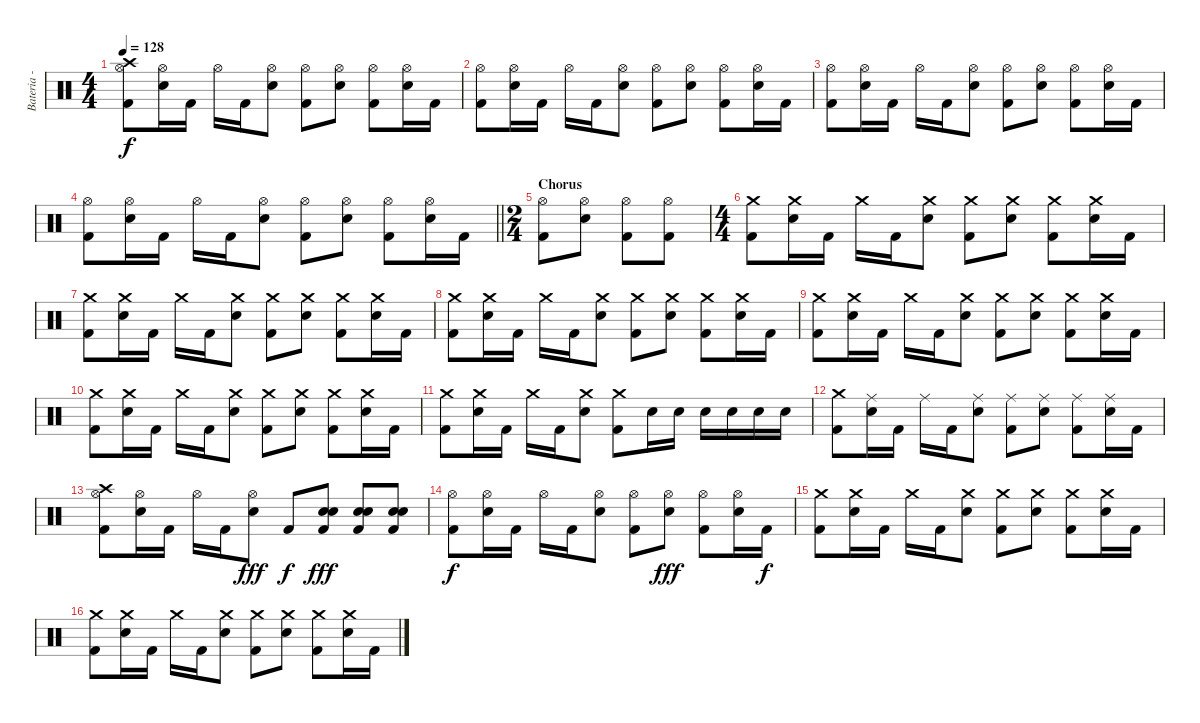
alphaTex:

\track ("Bateria - Larzon" "Bateria - ") {instrument percussion}
\staff {score}
\articulation defaults
\ts (4 4)
\tempo 128
\clef neutral
\ks c
("Kick (hit) 2" "Hi-Hat (open)" "Crash high (hit)").8{dy f} ("Electric Snare (hit)" "Hi-Hat (open)").16 "Kick (hit) 2".16 "Hi-Hat (open)".16 "Kick (hit) 2".16 ("Electric Snare (hit)" "Hi-Hat (open)").8 ("Kick (hit) 2" "Hi-Hat (open)").8 ("Electric Snare (hit)" "Hi-Hat (open)").8 ("Kick (hit) 2" "Hi-Hat (open)").8 ("Electric Snare (hit)" "Hi-Hat (open)").16 "Kick (hit) 2".16 |
("Kick (hit) 2" "Hi-Hat (open)").8 ("Electric Snare (hit)" "Hi-Hat (open)").16 "Kick (hit) 2".16 "Hi-Hat (open)".16 "Kick (hit) 2".16 ("Electric Snare (hit)" "Hi-Hat (open)").8 ("Kick (hit) 2" "Hi-Hat (open)").8 ("Electric Snare (hit)" "Hi-Hat (open)").8 ("Kick (hit) 2" "Hi-Hat (open)").8 ("Electric Snare (hit)" "Hi-Hat (open)").16 "Kick (hit) 2".16 |
("Kick (hit) 2" "Hi-Hat (open)").8 ("Electric Snare (hit)" "Hi-Hat (open)").16 "Kick (hit) 2".16 "Hi-Hat (open)".16 "Kick (hit) 2".16 ("Electric Snare (hit)" "Hi-Hat (open)").8 ("Kick (hit) 2" "Hi-Hat (open)").8 ("Electric Snare (hit)" "Hi-Hat (open)").8 ("Kick (hit) 2" "Hi-Hat (open)").8 ("Electric Snare (hit)" "Hi-Hat (open)").16 "Kick (hit) 2".16 |
\barLineRight lightlight
("Kick (hit) 2" "Hi-Hat (open)").8 ("Electric Snare (hit)" "Hi-Hat (open)").16 "Kick (hit) 2".16 "Hi-Hat (open)".16 "Kick (hit) 2".16 ("Electric Snare (hit)" "Hi-Hat (open)").8 ("Kick (hit) 2" "Hi-Hat (open)").8 ("Electric Snare (hit)" "Hi-Hat (open)").8 ("Kick (hit) 2" "Hi-Hat (open)").8 ("Electric Snare (hit)" "Hi-Hat (open)").16 "Kick (hit) 2".16 |
\ts (2 4)
\section ("" "Chorus")
("Kick (hit) 2" "Hi-Hat (open)").8 ("Electric Snare (hit)" "Hi-Hat (open)").8 ("Kick (hit) 2" "Hi-Hat (open)").8 ("Kick (hit) 2" "Hi-Hat (open)").8 |
\ts (4 4)
("Kick (hit) 2" "Crash medium (hit)").8 ("Electric Snare (hit)" "Crash medium (hit)").16 "Kick (hit) 2".16 "Crash medium (hit)".16 "Kick (hit) 2".16 ("Electric Snare (hit)" "Crash medium (hit)").8 ("Kick (hit) 2" "Crash medium (hit)").8 ("Electric Snare (hit)" "Crash medium (hit)").8 ("Kick (hit) 2" "Crash medium (hit)").8 ("Electric Snare (hit)" "Crash medium (hit)").16 "Kick (hit) 2".16 |
("Kick (hit) 2" "Crash medium (hit)").8 ("Electric Snare (hit)" "Crash medium (hit)").16 "Kick (hit) 2".16 "Crash medium (hit)".16 "Kick (hit) 2".16 ("Electric Snare (hit)" "Crash medium (hit)").8 ("Kick (hit) 2" "Crash medium (hit)").8 ("Electric Snare (hit)" "Crash medium (hit)").8 ("Kick (hit) 2" "Crash medium (hit)").8 ("Electric Snare (hit)" "Crash medium (hit)").16 "Kick (hit) 2".16 |
("Kick (hit) 2" "Crash medium (hit)").8 ("Electric Snare (hit)" "Crash medium (hit)").16 "Kick (hit) 2".16 "Crash medium (hit)".16 "Kick (hit) 2".16 ("Electric Snare (hit)" "Crash medium (hit)").8 ("Kick (hit) 2" "Crash medium (hit)").8 ("Electric Snare (hit)" "Crash medium (hit)").8 ("Kick (hit) 2" "Crash medium (hit)").8 ("Electric Snare (hit)" "Crash medium (hit)").16 "Kick (hit) 2".16 |
("Kick (hit) 2" "Crash medium (hit)").8 ("Electric Snare (hit)" "Crash medium (hit)").16 "Kick (hit) 2".16 "Crash medium (hit)".16 "Kick (hit) 2".16 ("Electric Snare (hit)" "Crash medium (hit)").8 ("Kick (hit) 2" "Crash medium (hit)").8 ("Electric Snare (hit)" "Crash medium (hit)").8 ("Kick (hit) 2" "Crash medium (hit)").8 ("Electric Snare (hit)" "Crash medium (hit)").16 "Kick (hit) 2".16 |
("Kick (hit) 2" "Crash medium (hit)").8 ("Electric Snare (hit)" "Crash medium (hit)").16 "Kick (hit) 2".16 "Crash medium (hit)".16 "Kick (hit) 2".16 ("Electric Snare (hit)" "Crash medium (hit)").8 ("Kick (hit) 2" "Crash medium (hit)").8 ("Electric Snare (hit)" "Crash medium (hit)").8 ("Kick (hit) 2" "Crash medium (hit)").8 ("Electric Snare (hit)" "Crash medium (hit)").16 "Kick (hit) 2".16 |
("Kick (hit) 2" "Crash medium (hit)").8 ("Electric Snare (hit)" "Crash medium (hit)").16 "Kick (hit) 2".16 "Crash medium (hit)".16 "Kick (hit) 2".16 ("Electric Snare (hit)" "Crash medium (hit)").8 ("Kick (hit) 2" "Crash medium (hit)").8 "Electric Snare (hit)".16 "Electric Snare (hit)".16 "Electric Snare (hit)".16 "Electric Snare (hit)".16 "Electric Snare (hit)".16 "Electric Snare (hit)".16 |
("Kick (hit) 2" "Crash medium (hit)").8 ("Electric Snare (hit)" "Ride (middle)").16 "Kick (hit) 2".16 "Ride (middle)".16 "Kick (hit) 2".16 ("Electric Snare (hit)" "Ride (middle)").8 ("Kick (hit) 2" "Ride (middle)").8 ("Electric Snare (hit)" "Ride (middle)").8 ("Kick (hit) 2" "Ride (middle)").8 ("Electric Snare (hit)" "Ride (middle)").16 "Kick (hit) 2".16 |
("Kick (hit) 2" "Hi-Hat (open)" "Crash high (hit)").8 ("Electric Snare (hit)" "Hi-Hat (open)").16 "Kick (hit) 2".16 "Hi-Hat (open)".16 "Kick (hit) 2".16 ("Electric Snare (hit)" "Hi-Hat (open)").8{dy fff} "Kick (hit) 2".8{dy f} ("Electric Snare (hit)" "Electric Snare (hit)" "Kick (hit) 2").8{dy fff} ("Electric Snare (hit)" "Electric Snare (hit)" "Kick (hit) 2").8 ("Electric Snare (hit)" "Electric Snare (hit)" "Kick (hit) 2").8 |
("Kick (hit) 2" "Hi-Hat (open)").8{dy f} ("Electric Snare (hit)" "Hi-Hat (open)").16 "Kick (hit) 2".16 "Hi-Hat (open)".16 "Kick (hit) 2".16 ("Electric Snare (hit)" "Hi-Hat (open)").8 ("Kick (hit) 2" "Hi-Hat (open)").8 ("Electric Snare (hit)" "Hi-Hat (open)").8{dy fff} ("Kick (hit) 2" "Hi-Hat (open)").8 ("Electric Snare (hit)" "Hi-Hat (open)").16 "Kick (hit) 2".16{dy f} |
("Kick (hit) 2" "Crash medium (hit)").8 ("Electric Snare (hit)" "Crash medium (hit)").16 "Kick (hit) 2".16 "Crash medium (hit)".16 "Kick (hit) 2".16 ("Electric Snare (hit)" "Crash medium (hit)").8 ("Kick (hit) 2" "Crash medium (hit)").8 ("Electric Snare (hit)" "Crash medium (hit)").8 ("Kick (hit) 2" "Crash medium (hit)").8 ("Electric Snare (hit)" "Crash medium (hit)").16 "Kick (hit) 2".16 |
("Kick (hit) 2" "Crash medium (hit)").8 ("Electric Snare (hit)" "Crash medium (hit)").16 "Kick (hit) 2".16 "Crash medium (hit)".16 "Kick (hit) 2".16 ("Electric Snare (hit)" "Crash medium (hit)").8 ("Kick (hit) 2" "Crash medium (hit)").8 ("Electric Snare (hit)" "Crash medium (hit)").8 ("Kick (hit) 2" "Crash medium (hit)").8 ("Electric Snare (hit)" "Crash medium (hit)").16 "Kick (hit) 2".16
